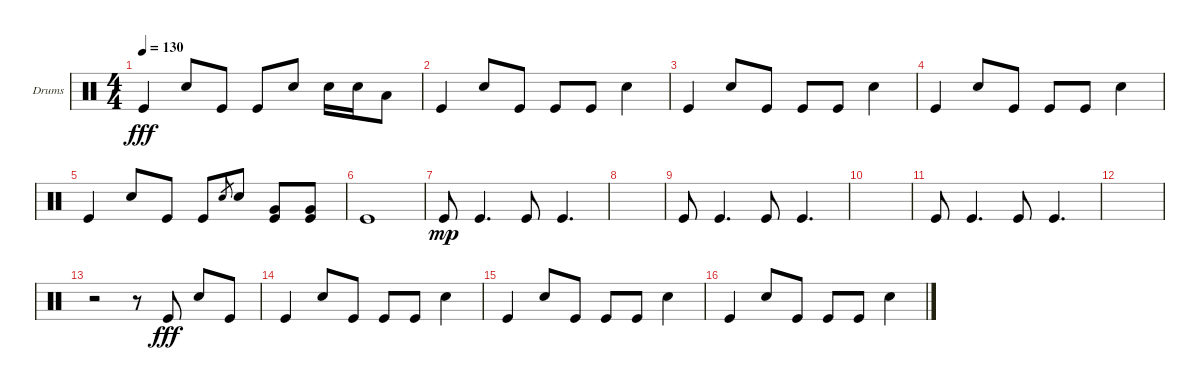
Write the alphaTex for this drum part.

\defaultSystemsLayout 4
\bracketExtendMode groupsimilarinstruments
\firstSystemTrackNameOrientation horizontal
\otherSystemsTrackNameOrientation horizontal
\track ("Helders" "Drums") {instrument percussion}
\staff {score}
\articulation defaults
\ts (4 4)
\tempo 130
\clef neutral
\ks c "Kick (hit)".4{dy fff} "Snare (hit) 2".8 "Kick (hit)".8 "Kick (hit)".8 "Snare (hit) 2".8 "Snare (hit) 2".16 "Snare (hit) 2".16 "Low Tom (hit)".8
|
"Kick (hit)".4 "Snare (hit) 2".8 "Kick (hit)".8 "Kick (hit)".8 "Kick (hit)".8 "Snare (hit) 2".4 |
"Kick (hit)".4 "Snare (hit) 2".8 "Kick (hit)".8 "Kick (hit)".8 "Kick (hit)".8 "Snare (hit) 2".4 |
"Kick (hit)".4 "Snare (hit) 2".8 "Kick (hit)".8 "Kick (hit)".8 "Kick (hit)".8 "Snare (hit) 2".4 |
"Kick (hit)".4 "Snare (hit) 2".8 "Kick (hit)".8 "Kick (hit)".8 "Snare (hit) 2".8{gr} "Snare (hit) 2".8 ("Kick (hit)" "Very Low Tom (hit)").8 ("Kick (hit)" "Very Low Tom (hit)").8 |
"Kick (hit)".1 |
"Kick (hit)".8{dy mp} "Kick (hit)".4{d} "Kick (hit)".8 "Kick (hit)".4{d} |
|
"Kick (hit)".8 "Kick (hit)".4{d} "Kick (hit)".8 "Kick (hit)".4{d} |
|
"Kick (hit)".8 "Kick (hit)".4{d} "Kick (hit)".8 "Kick (hit)".4{d} |
|
r.2 r.8 "Kick (hit)".8{dy fff} "Snare (hit) 2".8 "Kick (hit)".8 |
"Kick (hit)".4 "Snare (hit) 2".8 "Kick (hit)".8 "Kick (hit)".8 "Kick (hit)".8 "Snare (hit) 2".4 |
"Kick (hit)".4 "Snare (hit) 2".8 "Kick (hit)".8 "Kick (hit)".8 "Kick (hit)".8 "Snare (hit) 2".4 |
"Kick (hit)".4 "Snare (hit) 2".8 "Kick (hit)".8 "Kick (hit)".8 "Kick (hit)".8 "Snare (hit) 2".4
